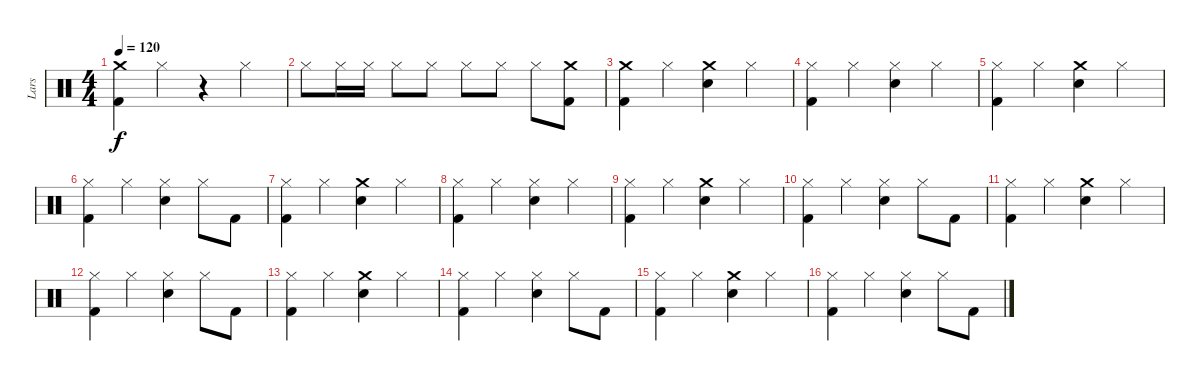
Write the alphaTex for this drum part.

\track ("Lars" "Lars") {instrument percussion}
\staff {score}
\articulation defaults
\ts (4 4)
\tempo 120
\clef neutral
\ks c
("Kick (hit) 2" "Crash medium (hit)").4{dy f} "Hi-Hat (closed)".4 r.4 "Hi-Hat (closed)".4 |
"Hi-Hat (closed)".8 "Hi-Hat (closed)".16 "Hi-Hat (closed)".16 "Hi-Hat (closed)".8 "Hi-Hat (closed)".8 "Hi-Hat (closed)".8 "Hi-Hat (closed)".8 "Hi-Hat (closed)".8 ("Kick (hit) 2" "Crash medium (hit)").8 |
("Kick (hit) 2" "Crash medium (hit)").4 "Hi-Hat (closed)".4 ("Crash medium (hit)" "Snare (hit) 2").4 "Hi-Hat (closed)".4 |
("Hi-Hat (closed)" "Kick (hit) 2").4 "Hi-Hat (closed)".4 ("Snare (hit) 2" "Hi-Hat (closed)").4 "Hi-Hat (closed)".4 |
("Kick (hit) 2" "Hi-Hat (closed)").4 "Hi-Hat (closed)".4 ("Crash medium (hit)" "Snare (hit) 2").4 "Hi-Hat (closed)".4 |
("Kick (hit) 2" "Hi-Hat (closed)").4 "Hi-Hat (closed)".4 ("Snare (hit) 2" "Hi-Hat (closed)").4 "Hi-Hat (closed)".8 "Kick (hit) 2".8 |
("Hi-Hat (closed)" "Kick (hit) 2").4 "Hi-Hat (closed)".4 ("Crash medium (hit)" "Snare (hit) 2").4 "Hi-Hat (closed)".4 |
("Hi-Hat (closed)" "Kick (hit) 2").4 "Hi-Hat (closed)".4 ("Snare (hit) 2" "Hi-Hat (closed)").4 "Hi-Hat (closed)".4 |
("Hi-Hat (closed)" "Kick (hit) 2").4 "Hi-Hat (closed)".4 ("Crash medium (hit)" "Snare (hit) 2").4 "Hi-Hat (closed)".4 |
("Hi-Hat (closed)" "Kick (hit) 2").4 "Hi-Hat (closed)".4 ("Snare (hit) 2" "Hi-Hat (closed)").4 "Hi-Hat (closed)".8 "Kick (hit) 2".8 |
("Hi-Hat (closed)" "Kick (hit) 2").4 "Hi-Hat (closed)".4 ("Crash medium (hit)" "Snare (hit) 2").4 "Hi-Hat (closed)".4 |
("Hi-Hat (closed)" "Kick (hit) 2").4 "Hi-Hat (closed)".4 ("Snare (hit) 2" "Hi-Hat (closed)").4 "Hi-Hat (closed)".8 "Kick (hit) 2".8 |
("Hi-Hat (closed)" "Kick (hit) 2").4 "Hi-Hat (closed)".4 ("Crash medium (hit)" "Snare (hit) 2").4 "Hi-Hat (closed)".4 |
("Hi-Hat (closed)" "Kick (hit) 2").4 "Hi-Hat (closed)".4 ("Snare (hit) 2" "Hi-Hat (closed)").4 "Hi-Hat (closed)".8 "Kick (hit) 2".8 |
("Hi-Hat (closed)" "Kick (hit) 2").4 "Hi-Hat (closed)".4 ("Crash medium (hit)" "Snare (hit) 2").4 "Hi-Hat (closed)".4 |
("Hi-Hat (closed)" "Kick (hit) 2").4 "Hi-Hat (closed)".4 ("Snare (hit) 2" "Hi-Hat (closed)").4 "Hi-Hat (closed)".8 "Kick (hit) 2".8
